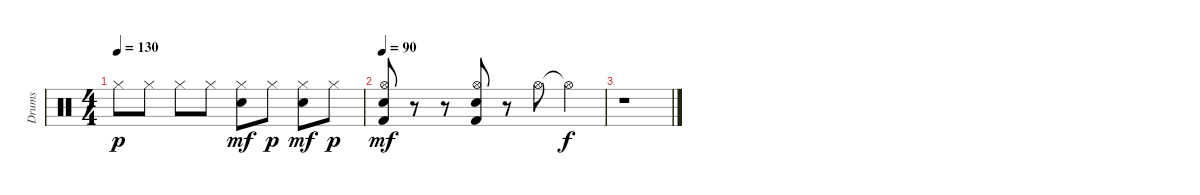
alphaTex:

\track ("Drums" "Drums") {instrument percussion}
\staff
\articulation defaults
\ts (4 4)
\tempo 130
\clef neutral
\ks c "Hi-Hat (closed)".8{dy p} "Hi-Hat (closed)".8 "Hi-Hat (closed)".8 "Hi-Hat (closed)".8
("Hi-Hat (closed)" "Electric Snare (hit)").8{dy mf} "Hi-Hat (closed)".8{dy p} ("Hi-Hat (closed)" "Electric Snare (hit)").8{dy mf} "Hi-Hat (closed)".8{dy p} |
\tempo 90
("Hi-Hat (open)" "Electric Snare (hit)" "Kick (hit) 2").8{dy mf} r.8 r.8 ("Hi-Hat (open)" "Electric Snare (hit)" "Kick (hit) 2").8 r.8 "Hi-Hat (open)".8 "Hi-Hat (open)"{t}.4{dy f} |
r.1
